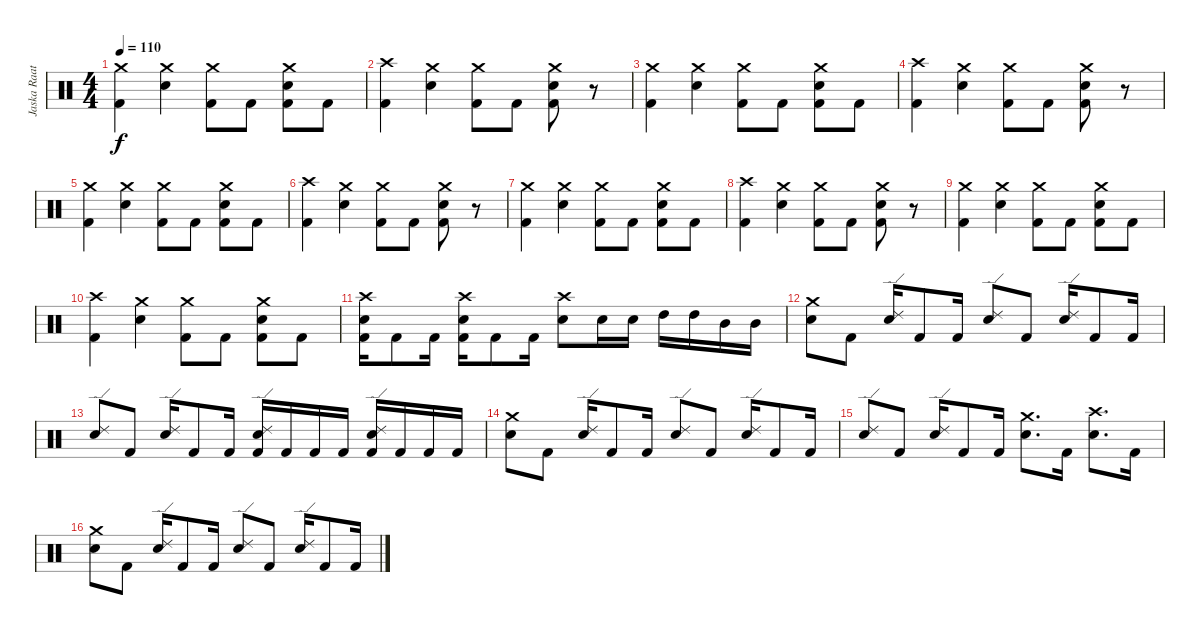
\track ("Jaska Raatikainen" "Jaska Raat") {instrument percussion}
\staff {score}
\articulation defaults
\ts (4 4)
\tempo 110
\clef neutral
\ks c
("Crash medium (hit)" "Kick (hit) 2").4{dy f} ("Crash medium (hit)" "Snare (hit) 2").4 ("Crash medium (hit)" "Kick (hit) 2").8 "Kick (hit) 2".8 ("Crash medium (hit)" "Snare (hit) 2" "Kick (hit) 2").8 "Kick (hit) 2".8 |
("Crash high (hit)" "Kick (hit) 2").4 ("Crash medium (hit)" "Snare (hit) 2").4 ("Crash medium (hit)" "Kick (hit) 2").8 "Kick (hit) 2".8 ("Crash medium (hit)" "Snare (hit) 2" "Kick (hit) 2").8 r.8 |
("Crash medium (hit)" "Kick (hit) 2").4 ("Crash medium (hit)" "Snare (hit) 2").4 ("Crash medium (hit)" "Kick (hit) 2").8 "Kick (hit) 2".8 ("Crash medium (hit)" "Snare (hit) 2" "Kick (hit) 2").8 "Kick (hit) 2".8 |
("Crash high (hit)" "Kick (hit) 2").4 ("Crash medium (hit)" "Snare (hit) 2").4 ("Crash medium (hit)" "Kick (hit) 2").8 "Kick (hit) 2".8 ("Crash medium (hit)" "Snare (hit) 2" "Kick (hit) 2").8 r.8 |
("Crash medium (hit)" "Kick (hit) 2").4 ("Crash medium (hit)" "Snare (hit) 2").4 ("Crash medium (hit)" "Kick (hit) 2").8 "Kick (hit) 2".8 ("Crash medium (hit)" "Snare (hit) 2" "Kick (hit) 2").8 "Kick (hit) 2".8 |
("Crash high (hit)" "Kick (hit) 2").4 ("Crash medium (hit)" "Snare (hit) 2").4 ("Crash medium (hit)" "Kick (hit) 2").8 "Kick (hit) 2".8 ("Crash medium (hit)" "Snare (hit) 2" "Kick (hit) 2").8 r.8 |
("Crash medium (hit)" "Kick (hit) 2").4 ("Crash medium (hit)" "Snare (hit) 2").4 ("Crash medium (hit)" "Kick (hit) 2").8 "Kick (hit) 2".8 ("Crash medium (hit)" "Snare (hit) 2" "Kick (hit) 2").8 "Kick (hit) 2".8 |
("Crash high (hit)" "Kick (hit) 2").4 ("Crash medium (hit)" "Snare (hit) 2").4 ("Crash medium (hit)" "Kick (hit) 2").8 "Kick (hit) 2".8 ("Crash medium (hit)" "Snare (hit) 2" "Kick (hit) 2").8 r.8 |
("Crash medium (hit)" "Kick (hit) 2").4 ("Crash medium (hit)" "Snare (hit) 2").4 ("Crash medium (hit)" "Kick (hit) 2").8 "Kick (hit) 2".8 ("Crash medium (hit)" "Snare (hit) 2" "Kick (hit) 2").8 "Kick (hit) 2".8 |
("Crash high (hit)" "Kick (hit) 2").4 ("Crash medium (hit)" "Snare (hit) 2").4 ("Crash medium (hit)" "Kick (hit) 2").8 "Kick (hit) 2".8 ("Crash medium (hit)" "Snare (hit) 2" "Kick (hit) 2").8 "Kick (hit) 2".8 |
("Crash high (hit)" "Snare (hit) 2" "Kick (hit) 2").16 "Kick (hit) 2".8 "Kick (hit) 2".16 ("Crash high (hit)" "Snare (hit) 2" "Kick (hit) 2").16 "Kick (hit) 2".8 "Kick (hit) 2".16 ("Crash high (hit)" "Snare (hit) 2").8 "Snare (hit) 2".16 "Snare (hit) 2".16 "High Tom (hit)".16 "High Tom (hit)".16 "Mid Tom (hit)".16 "Mid Tom (hit)".16 |
("Electric Snare (hit)" "Crash medium (hit)").8 "Kick (hit) 2".8 ("Electric Snare (hit)" "Ride (edge) 2").16 "Kick (hit) 2".8 "Kick (hit) 2".16 ("Electric Snare (hit)" "Ride (edge) 2").8 "Kick (hit) 2".8 ("Electric Snare (hit)" "Ride (edge) 2").16 "Kick (hit) 2".8 "Kick (hit) 2".16 |
("Electric Snare (hit)" "Ride (edge) 2").8 "Kick (hit) 2".8 ("Electric Snare (hit)" "Ride (edge) 2").16 "Kick (hit) 2".8 "Kick (hit) 2".16 ("Kick (hit) 2" "Ride (edge) 2" "Electric Snare (hit)").16 "Kick (hit) 2".16 "Kick (hit) 2".16 "Kick (hit) 2".16 ("Kick (hit) 2" "Ride (edge) 2" "Electric Snare (hit)").16 "Kick (hit) 2".16 "Kick (hit) 2".16 "Kick (hit) 2".16 |
("Electric Snare (hit)" "Crash medium (hit)").8 "Kick (hit) 2".8 ("Electric Snare (hit)" "Ride (edge) 2").16 "Kick (hit) 2".8 "Kick (hit) 2".16 ("Electric Snare (hit)" "Ride (edge) 2").8 "Kick (hit) 2".8 ("Electric Snare (hit)" "Ride (edge) 2").16 "Kick (hit) 2".8 "Kick (hit) 2".16 |
("Electric Snare (hit)" "Ride (edge) 2").8 "Kick (hit) 2".8 ("Electric Snare (hit)" "Ride (edge) 2").16 "Kick (hit) 2".8 "Kick (hit) 2".16 ("Electric Snare (hit)" "Crash medium (hit)").8{d} "Kick (hit) 2".16 ("Electric Snare (hit)" "Crash high (hit)").8{d} "Kick (hit) 2".16 |
("Electric Snare (hit)" "Crash medium (hit)").8 "Kick (hit) 2".8 ("Electric Snare (hit)" "Ride (edge) 2").16 "Kick (hit) 2".8 "Kick (hit) 2".16 ("Electric Snare (hit)" "Ride (edge) 2").8 "Kick (hit) 2".8 ("Electric Snare (hit)" "Ride (edge) 2").16 "Kick (hit) 2".8 "Kick (hit) 2".16
